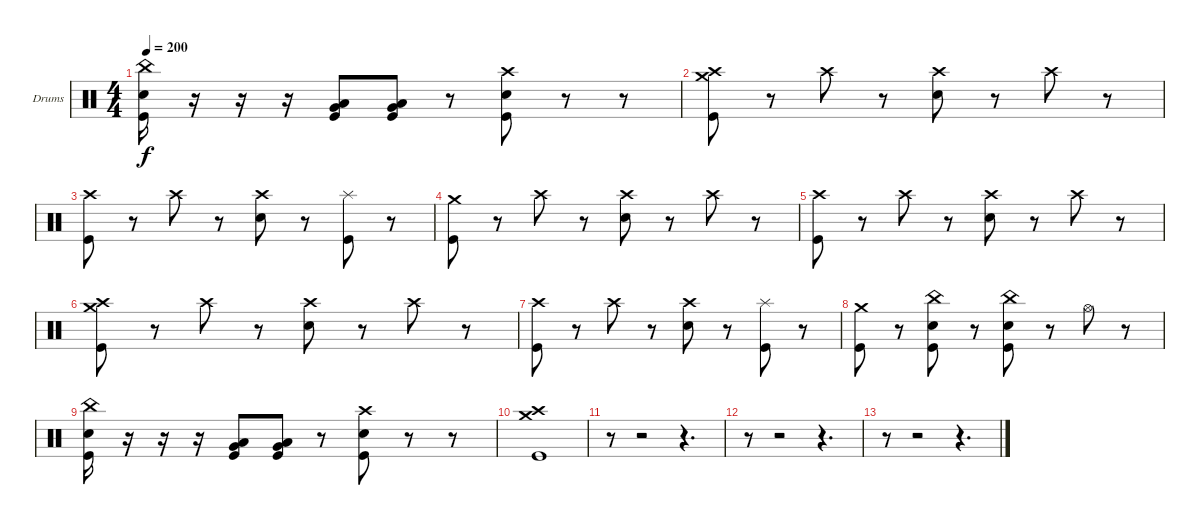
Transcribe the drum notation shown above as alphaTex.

\defaultSystemsLayout 4
\bracketExtendMode groupsimilarinstruments
\firstSystemTrackNameOrientation horizontal
\otherSystemsTrackNameOrientation horizontal
\track ("Drumkit" "Drums") {instrument percussion}
\staff {score}
\articulation defaults
\ts (4 4)
\tempo 200
\clef neutral
\ks c
("Kick (hit)" "Snare (hit) 2" "China (hit)").16{dy f} r.16 r.16 r.16 ("Kick (hit)" "Very Low Tom (hit)" "Low Tom (hit)").8 ("Kick (hit)" "Very Low Tom (hit)" "Low Tom (hit)").8 r.8 ("Kick (hit)" "Snare (hit) 2" "Crash high (hit)").8 r.8 r.8 |
("Kick (hit)" "Crash medium (hit)" "Crash high (hit)").8 r.8 "Crash high (hit)".8 r.8 ("Snare (hit) 2" "Crash high (hit)").8 r.8 "Crash high (hit)".8 r.8 |
("Kick (hit)" "Crash high (hit)").8 r.8 "Crash high (hit)".8 r.8 ("Snare (hit) 2" "Crash high (hit)").8 r.8 ("Kick (hit)" "Splash (hit)").8 r.8 |
("Kick (hit)" "Crash medium (hit)").8 r.8 "Crash high (hit)".8 r.8 ("Snare (hit) 2" "Crash high (hit)").8 r.8 "Crash high (hit)".8 r.8 |
("Kick (hit)" "Crash high (hit)").8 r.8 "Crash high (hit)".8 r.8 ("Snare (hit) 2" "Crash high (hit)").8 r.8 "Crash high (hit)".8 r.8 |
("Kick (hit)" "Crash medium (hit)" "Crash high (hit)").8 r.8 "Crash high (hit)".8 r.8 ("Snare (hit) 2" "Crash high (hit)").8 r.8 "Crash high (hit)".8 r.8 |
("Kick (hit)" "Crash high (hit)").8 r.8 "Crash high (hit)".8 r.8 ("Snare (hit) 2" "Crash high (hit)").8 r.8 ("Kick (hit)" "Splash (hit)").8 r.8 |
("Kick (hit)" "Crash medium (hit)").8 r.8 ("Kick (hit)" "Snare (hit) 2" "China (hit)").8 r.8 ("Kick (hit)" "Snare (hit) 2" "China (hit)").8 r.8 "Hi-Hat (open)".8 r.8 |
("Kick (hit)" "Snare (hit) 2" "China (hit)").16 r.16 r.16 r.16 ("Kick (hit)" "Very Low Tom (hit)" "Low Tom (hit)").8 ("Kick (hit)" "Very Low Tom (hit)" "Low Tom (hit)").8 r.8 ("Kick (hit)" "Snare (hit) 2" "Crash high (hit)").8 r.8 r.8 |
("Kick (hit)" "Crash medium (hit)" "Crash high (hit)").1 |
r.8 r.2 r.4{d} |
r.8 r.2 r.4{d} |
r.8 r.2 r.4{d}
